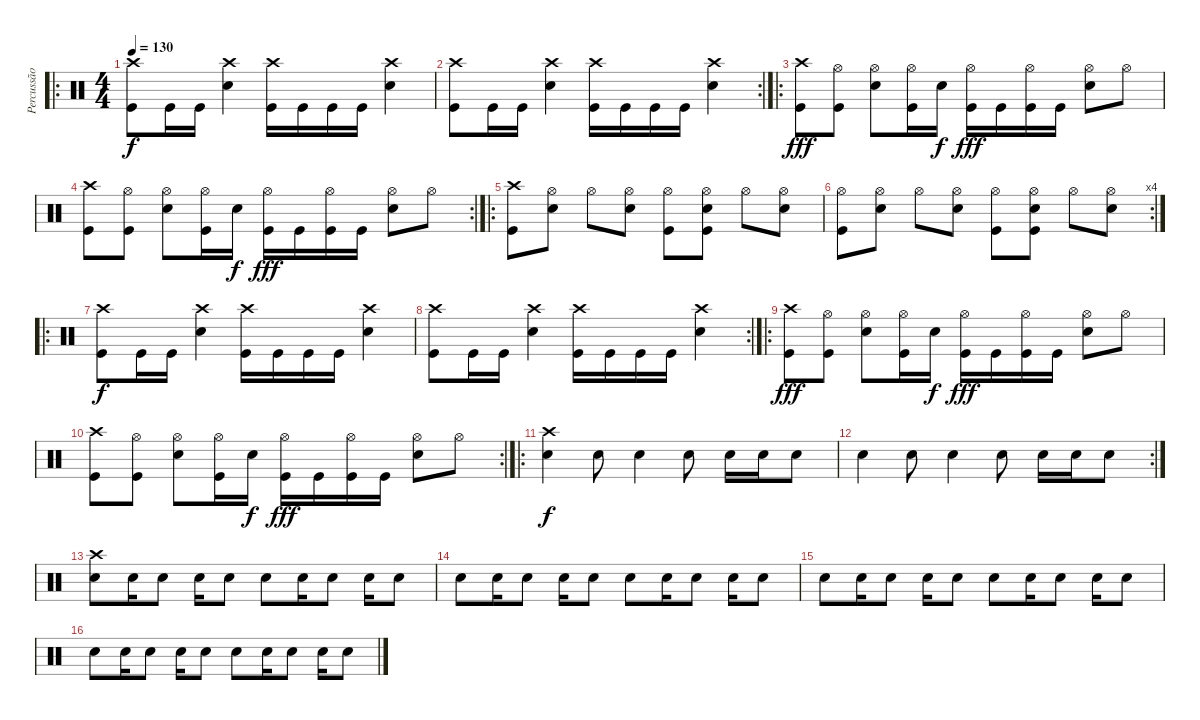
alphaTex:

\track ("Percussão" "Percussão") {instrument percussion}
\staff {score}
\articulation defaults
\ro
\ts (4 4)
\tempo 130
\clef neutral
\ks c
("Crash high (hit)" "Kick (hit)").8{dy f} "Kick (hit)".16 "Kick (hit)".16 ("Crash high (hit)" "Snare (hit) 2").4 ("Crash high (hit)" "Kick (hit)").16 "Kick (hit)".16 "Kick (hit)".16 "Kick (hit)".16 ("Crash high (hit)" "Snare (hit) 2").4 |
\rc 2
("Crash high (hit)" "Kick (hit)").8 "Kick (hit)".16 "Kick (hit)".16 ("Crash high (hit)" "Snare (hit) 2").4 ("Crash high (hit)" "Kick (hit)").16 "Kick (hit)".16 "Kick (hit)".16 "Kick (hit)".16 ("Crash high (hit)" "Snare (hit) 2").4 |
\ro
("Crash high (hit)" "Kick (hit)").8{dy fff} ("Hi-Hat (open)" "Kick (hit)").8 ("Hi-Hat (open)" "Snare (hit) 2").8 ("Hi-Hat (open)" "Kick (hit)").16 "Snare (hit) 2".16{dy f} ("Hi-Hat (open)" "Kick (hit)").16{dy fff} "Kick (hit)".16 ("Hi-Hat (open)" "Kick (hit)").16 "Kick (hit)".16 ("Hi-Hat (open)" "Snare (hit) 2").8 "Hi-Hat (open)".8 |
\rc 2
("Crash high (hit)" "Kick (hit)").8 ("Hi-Hat (open)" "Kick (hit)").8 ("Hi-Hat (open)" "Snare (hit) 2").8 ("Hi-Hat (open)" "Kick (hit)").16 "Snare (hit) 2".16{dy f} ("Hi-Hat (open)" "Kick (hit)").16{dy fff} "Kick (hit)".16 ("Hi-Hat (open)" "Kick (hit)").16 "Kick (hit)".16 ("Hi-Hat (open)" "Snare (hit) 2").8 "Hi-Hat (open)".8 |
\ro
("Crash high (hit)" "Kick (hit)").8 ("Hi-Hat (open)" "Snare (hit) 2").8 "Hi-Hat (open)".8 ("Hi-Hat (open)" "Snare (hit) 2").8 ("Hi-Hat (open)" "Kick (hit)").8 ("Hi-Hat (open)" "Snare (hit) 2" "Kick (hit)").8 "Hi-Hat (open)".8 ("Hi-Hat (open)" "Snare (hit) 2").8 |
\rc 4
("Hi-Hat (open)" "Kick (hit)").8 ("Hi-Hat (open)" "Snare (hit) 2").8 "Hi-Hat (open)".8 ("Hi-Hat (open)" "Snare (hit) 2").8 ("Hi-Hat (open)" "Kick (hit)").8 ("Hi-Hat (open)" "Snare (hit) 2" "Kick (hit)").8 "Hi-Hat (open)".8 ("Hi-Hat (open)" "Snare (hit) 2").8 |
\ro
("Crash high (hit)" "Kick (hit)").8{dy f} "Kick (hit)".16 "Kick (hit)".16 ("Crash high (hit)" "Snare (hit) 2").4 ("Crash high (hit)" "Kick (hit)").16 "Kick (hit)".16 "Kick (hit)".16 "Kick (hit)".16 ("Crash high (hit)" "Snare (hit) 2").4 |
\rc 2
("Crash high (hit)" "Kick (hit)").8 "Kick (hit)".16 "Kick (hit)".16 ("Crash high (hit)" "Snare (hit) 2").4 ("Crash high (hit)" "Kick (hit)").16 "Kick (hit)".16 "Kick (hit)".16 "Kick (hit)".16 ("Crash high (hit)" "Snare (hit) 2").4 |
\ro
("Crash high (hit)" "Kick (hit)").8{dy fff} ("Hi-Hat (open)" "Kick (hit)").8 ("Hi-Hat (open)" "Snare (hit) 2").8 ("Hi-Hat (open)" "Kick (hit)").16 "Snare (hit) 2".16{dy f} ("Hi-Hat (open)" "Kick (hit)").16{dy fff} "Kick (hit)".16 ("Hi-Hat (open)" "Kick (hit)").16 "Kick (hit)".16 ("Hi-Hat (open)" "Snare (hit) 2").8 "Hi-Hat (open)".8 |
\rc 2
("Crash high (hit)" "Kick (hit)").8 ("Hi-Hat (open)" "Kick (hit)").8 ("Hi-Hat (open)" "Snare (hit) 2").8 ("Hi-Hat (open)" "Kick (hit)").16 "Snare (hit) 2".16{dy f} ("Hi-Hat (open)" "Kick (hit)").16{dy fff} "Kick (hit)".16 ("Hi-Hat (open)" "Kick (hit)").16 "Kick (hit)".16 ("Hi-Hat (open)" "Snare (hit) 2").8 "Hi-Hat (open)".8 |
\ro
("Crash high (hit)" "Snare (hit) 2").4{dy f} "Snare (hit) 2".8 "Snare (hit) 2".4 "Snare (hit) 2".8 "Snare (hit) 2".16 "Snare (hit) 2".16 "Snare (hit) 2".8 |
\rc 2 "Snare (hit) 2".4 "Snare (hit) 2".8 "Snare (hit) 2".4 "Snare (hit) 2".8 "Snare (hit) 2".16 "Snare (hit) 2".16 "Snare (hit) 2".8
|
("Crash high (hit)" "Snare (hit) 2").8 "Snare (hit) 2".16 "Snare (hit) 2".8 "Snare (hit) 2".16 "Snare (hit) 2".8 "Snare (hit) 2".8 "Snare (hit) 2".16 "Snare (hit) 2".8 "Snare (hit) 2".16 "Snare (hit) 2".8 |
"Snare (hit) 2".8 "Snare (hit) 2".16 "Snare (hit) 2".8 "Snare (hit) 2".16 "Snare (hit) 2".8 "Snare (hit) 2".8 "Snare (hit) 2".16 "Snare (hit) 2".8 "Snare (hit) 2".16 "Snare (hit) 2".8 |
"Snare (hit) 2".8 "Snare (hit) 2".16 "Snare (hit) 2".8 "Snare (hit) 2".16 "Snare (hit) 2".8 "Snare (hit) 2".8 "Snare (hit) 2".16 "Snare (hit) 2".8 "Snare (hit) 2".16 "Snare (hit) 2".8 |
"Snare (hit) 2".8 "Snare (hit) 2".16 "Snare (hit) 2".8 "Snare (hit) 2".16 "Snare (hit) 2".8 "Snare (hit) 2".8 "Snare (hit) 2".16 "Snare (hit) 2".8 "Snare (hit) 2".16 "Snare (hit) 2".8
